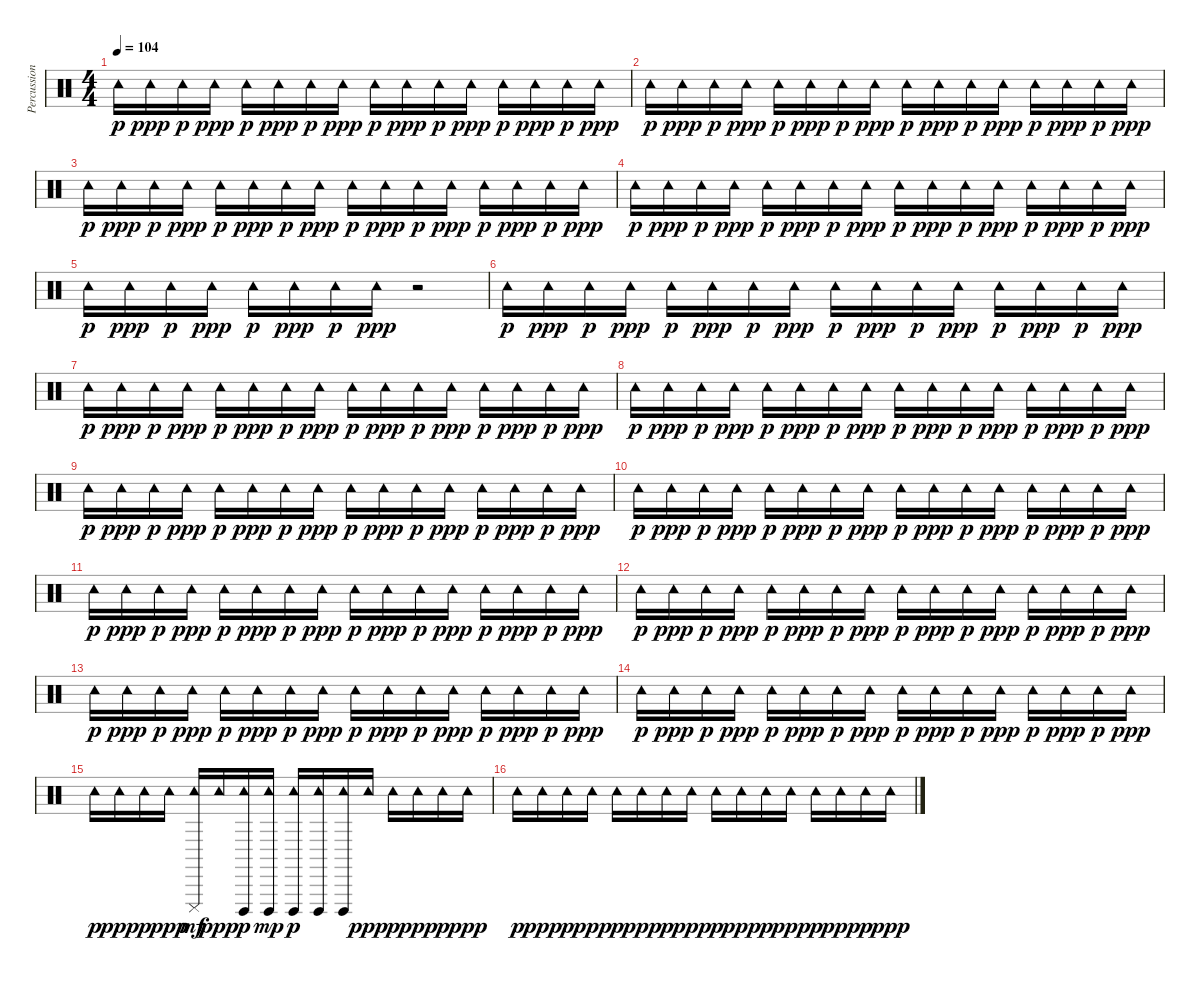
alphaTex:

\track ("Percussion & Drums" "Percussion") {instrument percussion}
\staff {score}
\articulation defaults
\ts (4 4)
\tempo 104
\clef neutral
\ks c "Tambourine (hit)".16{dy p} "Tambourine (hit)".16{dy ppp} "Tambourine (hit)".16{dy p} "Tambourine (hit)".16{dy ppp} "Tambourine (hit)".16{dy p} "Tambourine (hit)".16{dy ppp} "Tambourine (hit)".16{dy p} "Tambourine (hit)".16{dy ppp} "Tambourine (hit)".16{dy p} "Tambourine (hit)".16{dy ppp} "Tambourine (hit)".16{dy p} "Tambourine (hit)".16{dy ppp} "Tambourine (hit)".16{dy p} "Tambourine (hit)".16{dy ppp} "Tambourine (hit)".16{dy p} "Tambourine (hit)".16{dy ppp}
|
"Tambourine (hit)".16{dy p} "Tambourine (hit)".16{dy ppp} "Tambourine (hit)".16{dy p} "Tambourine (hit)".16{dy ppp} "Tambourine (hit)".16{dy p} "Tambourine (hit)".16{dy ppp} "Tambourine (hit)".16{dy p} "Tambourine (hit)".16{dy ppp} "Tambourine (hit)".16{dy p} "Tambourine (hit)".16{dy ppp} "Tambourine (hit)".16{dy p} "Tambourine (hit)".16{dy ppp} "Tambourine (hit)".16{dy p} "Tambourine (hit)".16{dy ppp} "Tambourine (hit)".16{dy p} "Tambourine (hit)".16{dy ppp} |
"Tambourine (hit)".16{dy p} "Tambourine (hit)".16{dy ppp} "Tambourine (hit)".16{dy p} "Tambourine (hit)".16{dy ppp} "Tambourine (hit)".16{dy p} "Tambourine (hit)".16{dy ppp} "Tambourine (hit)".16{dy p} "Tambourine (hit)".16{dy ppp} "Tambourine (hit)".16{dy p} "Tambourine (hit)".16{dy ppp} "Tambourine (hit)".16{dy p} "Tambourine (hit)".16{dy ppp} "Tambourine (hit)".16{dy p} "Tambourine (hit)".16{dy ppp} "Tambourine (hit)".16{dy p} "Tambourine (hit)".16{dy ppp} |
"Tambourine (hit)".16{dy p} "Tambourine (hit)".16{dy ppp} "Tambourine (hit)".16{dy p} "Tambourine (hit)".16{dy ppp} "Tambourine (hit)".16{dy p} "Tambourine (hit)".16{dy ppp} "Tambourine (hit)".16{dy p} "Tambourine (hit)".16{dy ppp} "Tambourine (hit)".16{dy p} "Tambourine (hit)".16{dy ppp} "Tambourine (hit)".16{dy p} "Tambourine (hit)".16{dy ppp} "Tambourine (hit)".16{dy p} "Tambourine (hit)".16{dy ppp} "Tambourine (hit)".16{dy p} "Tambourine (hit)".16{dy ppp} |
"Tambourine (hit)".16{dy p} "Tambourine (hit)".16{dy ppp} "Tambourine (hit)".16{dy p} "Tambourine (hit)".16{dy ppp} "Tambourine (hit)".16{dy p} "Tambourine (hit)".16{dy ppp} "Tambourine (hit)".16{dy p} "Tambourine (hit)".16{dy ppp} r.2 |
"Tambourine (hit)".16{dy p} "Tambourine (hit)".16{dy ppp} "Tambourine (hit)".16{dy p} "Tambourine (hit)".16{dy ppp} "Tambourine (hit)".16{dy p} "Tambourine (hit)".16{dy ppp} "Tambourine (hit)".16{dy p} "Tambourine (hit)".16{dy ppp} "Tambourine (hit)".16{dy p} "Tambourine (hit)".16{dy ppp} "Tambourine (hit)".16{dy p} "Tambourine (hit)".16{dy ppp} "Tambourine (hit)".16{dy p} "Tambourine (hit)".16{dy ppp} "Tambourine (hit)".16{dy p} "Tambourine (hit)".16{dy ppp} |
"Tambourine (hit)".16{dy p} "Tambourine (hit)".16{dy ppp} "Tambourine (hit)".16{dy p} "Tambourine (hit)".16{dy ppp} "Tambourine (hit)".16{dy p} "Tambourine (hit)".16{dy ppp} "Tambourine (hit)".16{dy p} "Tambourine (hit)".16{dy ppp} "Tambourine (hit)".16{dy p} "Tambourine (hit)".16{dy ppp} "Tambourine (hit)".16{dy p} "Tambourine (hit)".16{dy ppp} "Tambourine (hit)".16{dy p} "Tambourine (hit)".16{dy ppp} "Tambourine (hit)".16{dy p} "Tambourine (hit)".16{dy ppp} |
"Tambourine (hit)".16{dy p} "Tambourine (hit)".16{dy ppp} "Tambourine (hit)".16{dy p} "Tambourine (hit)".16{dy ppp} "Tambourine (hit)".16{dy p} "Tambourine (hit)".16{dy ppp} "Tambourine (hit)".16{dy p} "Tambourine (hit)".16{dy ppp} "Tambourine (hit)".16{dy p} "Tambourine (hit)".16{dy ppp} "Tambourine (hit)".16{dy p} "Tambourine (hit)".16{dy ppp} "Tambourine (hit)".16{dy p} "Tambourine (hit)".16{dy ppp} "Tambourine (hit)".16{dy p} "Tambourine (hit)".16{dy ppp} |
"Tambourine (hit)".16{dy p} "Tambourine (hit)".16{dy ppp} "Tambourine (hit)".16{dy p} "Tambourine (hit)".16{dy ppp} "Tambourine (hit)".16{dy p} "Tambourine (hit)".16{dy ppp} "Tambourine (hit)".16{dy p} "Tambourine (hit)".16{dy ppp} "Tambourine (hit)".16{dy p} "Tambourine (hit)".16{dy ppp} "Tambourine (hit)".16{dy p} "Tambourine (hit)".16{dy ppp} "Tambourine (hit)".16{dy p} "Tambourine (hit)".16{dy ppp} "Tambourine (hit)".16{dy p} "Tambourine (hit)".16{dy ppp} |
"Tambourine (hit)".16{dy p} "Tambourine (hit)".16{dy ppp} "Tambourine (hit)".16{dy p} "Tambourine (hit)".16{dy ppp} "Tambourine (hit)".16{dy p} "Tambourine (hit)".16{dy ppp} "Tambourine (hit)".16{dy p} "Tambourine (hit)".16{dy ppp} "Tambourine (hit)".16{dy p} "Tambourine (hit)".16{dy ppp} "Tambourine (hit)".16{dy p} "Tambourine (hit)".16{dy ppp} "Tambourine (hit)".16{dy p} "Tambourine (hit)".16{dy ppp} "Tambourine (hit)".16{dy p} "Tambourine (hit)".16{dy ppp} |
"Tambourine (hit)".16{dy p} "Tambourine (hit)".16{dy ppp} "Tambourine (hit)".16{dy p} "Tambourine (hit)".16{dy ppp} "Tambourine (hit)".16{dy p} "Tambourine (hit)".16{dy ppp} "Tambourine (hit)".16{dy p} "Tambourine (hit)".16{dy ppp} "Tambourine (hit)".16{dy p} "Tambourine (hit)".16{dy ppp} "Tambourine (hit)".16{dy p} "Tambourine (hit)".16{dy ppp} "Tambourine (hit)".16{dy p} "Tambourine (hit)".16{dy ppp} "Tambourine (hit)".16{dy p} "Tambourine (hit)".16{dy ppp} |
"Tambourine (hit)".16{dy p} "Tambourine (hit)".16{dy ppp} "Tambourine (hit)".16{dy p} "Tambourine (hit)".16{dy ppp} "Tambourine (hit)".16{dy p} "Tambourine (hit)".16{dy ppp} "Tambourine (hit)".16{dy p} "Tambourine (hit)".16{dy ppp} "Tambourine (hit)".16{dy p} "Tambourine (hit)".16{dy ppp} "Tambourine (hit)".16{dy p} "Tambourine (hit)".16{dy ppp} "Tambourine (hit)".16{dy p} "Tambourine (hit)".16{dy ppp} "Tambourine (hit)".16{dy p} "Tambourine (hit)".16{dy ppp} |
"Tambourine (hit)".16{dy p} "Tambourine (hit)".16{dy ppp} "Tambourine (hit)".16{dy p} "Tambourine (hit)".16{dy ppp} "Tambourine (hit)".16{dy p} "Tambourine (hit)".16{dy ppp} "Tambourine (hit)".16{dy p} "Tambourine (hit)".16{dy ppp} "Tambourine (hit)".16{dy p} "Tambourine (hit)".16{dy ppp} "Tambourine (hit)".16{dy p} "Tambourine (hit)".16{dy ppp} "Tambourine (hit)".16{dy p} "Tambourine (hit)".16{dy ppp} "Tambourine (hit)".16{dy p} "Tambourine (hit)".16{dy ppp} |
"Tambourine (hit)".16{dy p} "Tambourine (hit)".16{dy ppp} "Tambourine (hit)".16{dy p} "Tambourine (hit)".16{dy ppp} "Tambourine (hit)".16{dy p} "Tambourine (hit)".16{dy ppp} "Tambourine (hit)".16{dy p} "Tambourine (hit)".16{dy ppp} "Tambourine (hit)".16{dy p} "Tambourine (hit)".16{dy ppp} "Tambourine (hit)".16{dy p} "Tambourine (hit)".16{dy ppp} "Tambourine (hit)".16{dy p} "Tambourine (hit)".16{dy ppp} "Tambourine (hit)".16{dy p} "Tambourine (hit)".16{dy ppp} |
"Tambourine (hit)".16{dy p} "Tambourine (hit)".16{dy ppp} "Tambourine (hit)".16{dy p} "Tambourine (hit)".16{dy ppp} ("Tambourine (hit)" "Cuica (mute)").16{dy mf} "Tambourine (hit)".16{dy ppp} ("Cuica (open)" "Tambourine (hit)").16{dy p} ("Tambourine (hit)" "Cuica (open)").16{dy mp} ("Cuica (open)" "Tambourine (hit)").16{dy p} ("Tambourine (hit)" "Cuica (open)").16 ("Cuica (open)" "Tambourine (hit)").16 "Tambourine (hit)".16{dy ppp} "Tambourine (hit)".16{dy p} "Tambourine (hit)".16{dy ppp} "Tambourine (hit)".16{dy p} "Tambourine (hit)".16{dy ppp} |
"Tambourine (hit)".16{dy p} "Tambourine (hit)".16{dy ppp} "Tambourine (hit)".16{dy p} "Tambourine (hit)".16{dy ppp} "Tambourine (hit)".16{dy p} "Tambourine (hit)".16{dy ppp} "Tambourine (hit)".16{dy p} "Tambourine (hit)".16{dy ppp} "Tambourine (hit)".16{dy p} "Tambourine (hit)".16{dy ppp} "Tambourine (hit)".16{dy p} "Tambourine (hit)".16{dy ppp} "Tambourine (hit)".16{dy p} "Tambourine (hit)".16{dy ppp} "Tambourine (hit)".16{dy p} "Tambourine (hit)".16{dy ppp}
